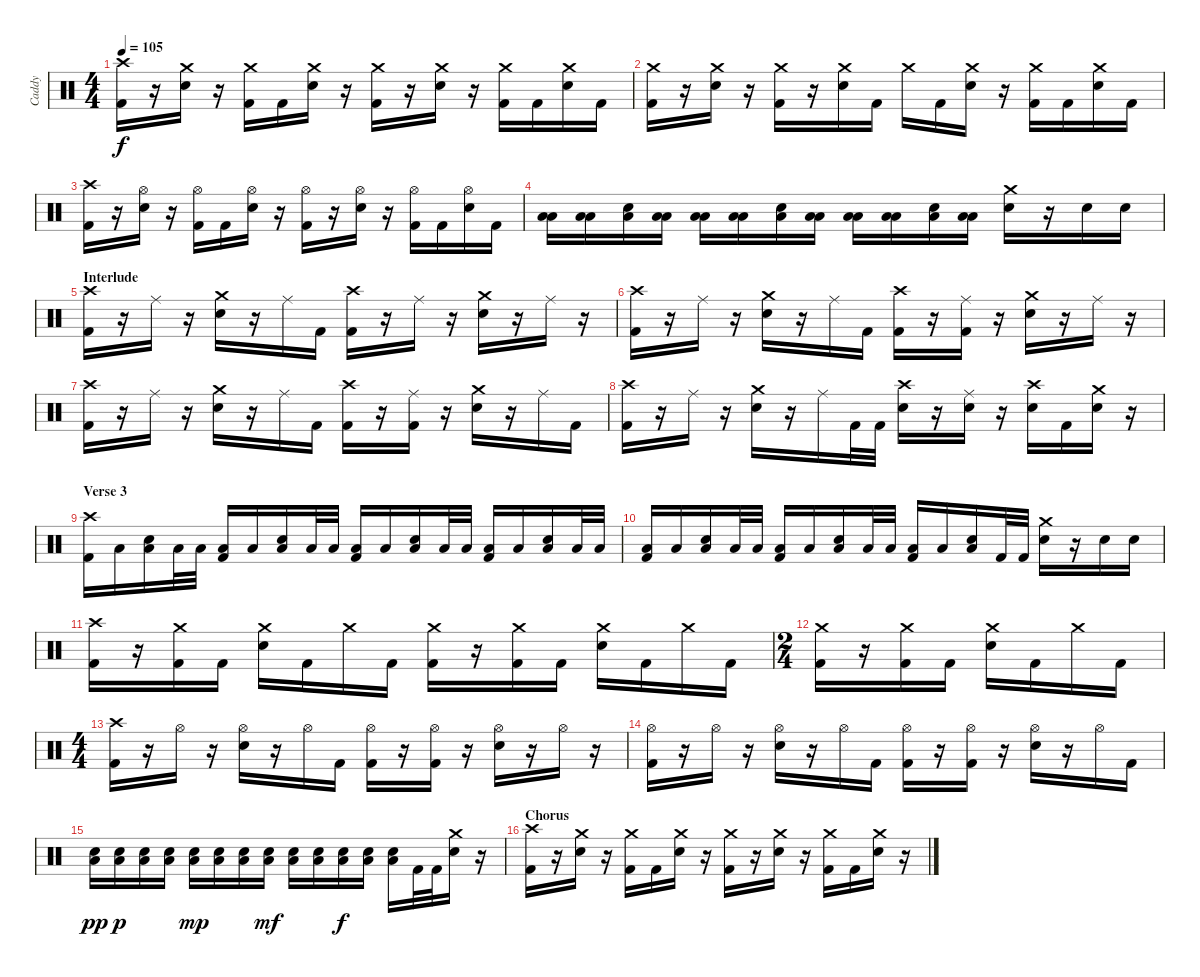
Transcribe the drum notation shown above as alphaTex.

\track ("Caddy" "Caddy") {instrument percussion}
\staff {score}
\articulation defaults
\ts (4 4)
\tempo 105
\clef neutral
\ks c
("Crash high (hit)" "Kick (hit) 2").16{dy f} r.16 ("Crash medium (hit)" "Electric Snare (hit)").16 r.16 ("Crash medium (hit)" "Kick (hit) 2").16 "Kick (hit) 2".16 ("Crash medium (hit)" "Electric Snare (hit)").16 r.16 ("Crash medium (hit)" "Kick (hit) 2").16 r.16 ("Crash medium (hit)" "Electric Snare (hit)").16 r.16 ("Crash medium (hit)" "Kick (hit) 2").16 "Kick (hit) 2".16 ("Crash medium (hit)" "Electric Snare (hit)").16 "Kick (hit) 2".16 |
("Crash medium (hit)" "Kick (hit) 2").16 r.16 ("Crash medium (hit)" "Electric Snare (hit)").16 r.16 ("Crash medium (hit)" "Kick (hit) 2").16 r.16 ("Crash medium (hit)" "Electric Snare (hit)").16 "Kick (hit) 2".16 "Crash medium (hit)".16 "Kick (hit) 2".16 ("Crash medium (hit)" "Electric Snare (hit)").16 r.16 ("Crash medium (hit)" "Kick (hit) 2").16 "Kick (hit) 2".16 ("Crash medium (hit)" "Electric Snare (hit)").16 "Kick (hit) 2".16 |
("Crash high (hit)" "Kick (hit) 2").16 r.16 ("Hi-Hat (open)" "Electric Snare (hit)").16 r.16 ("Hi-Hat (open)" "Kick (hit) 2").16 "Kick (hit) 2".16 ("Hi-Hat (open)" "Electric Snare (hit)").16 r.16 ("Hi-Hat (open)" "Kick (hit) 2").16 r.16 ("Hi-Hat (open)" "Electric Snare (hit)").16 r.16 ("Hi-Hat (open)" "Kick (hit) 2").16 "Kick (hit) 2".16 ("Hi-Hat (open)" "Electric Snare (hit)").16 "Kick (hit) 2".16 |
("Low Tom (hit)" "Low Floor Tom (hit)").16 ("Low Tom (hit)" "Low Floor Tom (hit)").16 ("Electric Snare (hit)" "Low Floor Tom (hit)").16 ("Low Tom (hit)" "Low Floor Tom (hit)").16 ("Low Tom (hit)" "Low Floor Tom (hit)").16 ("Low Tom (hit)" "Low Floor Tom (hit)").16 ("Electric Snare (hit)" "Low Floor Tom (hit)").16 ("Low Tom (hit)" "Low Floor Tom (hit)").16 ("Low Tom (hit)" "Low Floor Tom (hit)").16 ("Low Tom (hit)" "Low Floor Tom (hit)").16 ("Electric Snare (hit)" "Low Floor Tom (hit)").16 ("Low Tom (hit)" "Low Floor Tom (hit)").16 ("Crash medium (hit)" "Electric Snare (hit)").16 r.16 "Electric Snare (hit)".16 "Electric Snare (hit)".16 |
\section ("" "Interlude")
("Crash high (hit)" "Kick (hit) 2").16 r.16 "Ride (middle)".16 r.16 ("Crash medium (hit)" "Electric Snare (hit)").16 r.16 "Ride (middle)".16 "Kick (hit) 2".16 ("Crash high (hit)" "Kick (hit) 2").16 r.16 "Ride (middle)".16 r.16 ("Crash medium (hit)" "Electric Snare (hit)").16 r.16 "Ride (middle)".16 r.16 |
("Crash high (hit)" "Kick (hit) 2").16 r.16 "Ride (middle)".16 r.16 ("Crash medium (hit)" "Electric Snare (hit)").16 r.16 "Ride (middle)".16 "Kick (hit) 2".16 ("Crash high (hit)" "Kick (hit) 2").16 r.16 ("Ride (middle)" "Kick (hit) 2").16 r.16 ("Crash medium (hit)" "Electric Snare (hit)").16 r.16 "Ride (middle)".16 r.16 |
("Crash high (hit)" "Kick (hit) 2").16 r.16 "Ride (middle)".16 r.16 ("Crash medium (hit)" "Electric Snare (hit)").16 r.16 "Ride (middle)".16 "Kick (hit) 2".16 ("Crash high (hit)" "Kick (hit) 2").16 r.16 ("Ride (middle)" "Kick (hit) 2").16 r.16 ("Crash medium (hit)" "Electric Snare (hit)").16 r.16 "Ride (middle)".16 "Kick (hit) 2".16 |
("Crash high (hit)" "Kick (hit) 2").16 r.16 "Ride (middle)".16 r.16 ("Crash medium (hit)" "Electric Snare (hit)").16 r.16 "Ride (middle)".16 "Kick (hit) 2".32 "Kick (hit) 2".32 ("Crash high (hit)" "Electric Snare (hit)").16 r.16 ("Ride (middle)" "Electric Snare (hit)").16 r.16 ("Crash high (hit)" "Electric Snare (hit)").16 "Kick (hit) 2".16 ("Crash medium (hit)" "Electric Snare (hit)").16 r.16 |
\section ("" "Verse 3")
("Crash high (hit)" "Kick (hit) 2").16 "Low Floor Tom (hit)".16 ("Electric Snare (hit)" "Low Floor Tom (hit)").16 "Low Floor Tom (hit)".32 "Low Floor Tom (hit)".32 ("Low Floor Tom (hit)" "Kick (hit) 2").16 "Low Floor Tom (hit)".16 ("Electric Snare (hit)" "Low Floor Tom (hit)").16 "Low Floor Tom (hit)".32 "Low Floor Tom (hit)".32 ("Low Floor Tom (hit)" "Kick (hit) 2").16 "Low Floor Tom (hit)".16 ("Electric Snare (hit)" "Low Floor Tom (hit)").16 "Low Floor Tom (hit)".32 "Low Floor Tom (hit)".32 ("Low Floor Tom (hit)" "Kick (hit) 2").16 "Low Floor Tom (hit)".16 ("Electric Snare (hit)" "Low Floor Tom (hit)").16 "Low Floor Tom (hit)".32 "Low Floor Tom (hit)".32 |
("Low Floor Tom (hit)" "Kick (hit) 2").16 "Low Floor Tom (hit)".16 ("Electric Snare (hit)" "Low Floor Tom (hit)").16 "Low Floor Tom (hit)".32 "Low Floor Tom (hit)".32 ("Low Floor Tom (hit)" "Kick (hit) 2").16 "Low Floor Tom (hit)".16 ("Electric Snare (hit)" "Low Floor Tom (hit)").16 "Low Floor Tom (hit)".32 "Low Floor Tom (hit)".32 ("Low Floor Tom (hit)" "Kick (hit) 2").16 "Low Floor Tom (hit)".16 ("Electric Snare (hit)" "Low Floor Tom (hit)").16 "Kick (hit) 2".32 "Kick (hit) 2".32 ("Crash medium (hit)" "Electric Snare (hit)").16 r.16 "Electric Snare (hit)".16 "Electric Snare (hit)".16 |
("Crash high (hit)" "Kick (hit) 2").16 r.16 ("Crash medium (hit)" "Kick (hit) 2").16 "Kick (hit) 2".16 ("Crash medium (hit)" "Electric Snare (hit)").16 "Kick (hit) 2".16 "Crash medium (hit)".16 "Kick (hit) 2".16 ("Crash medium (hit)" "Kick (hit) 2").16 r.16 ("Crash medium (hit)" "Kick (hit) 2").16 "Kick (hit) 2".16 ("Crash medium (hit)" "Electric Snare (hit)").16 "Kick (hit) 2".16 "Crash medium (hit)".16 "Kick (hit) 2".16 |
\ts (2 4)
("Crash medium (hit)" "Kick (hit) 2").16 r.16 ("Crash medium (hit)" "Kick (hit) 2").16 "Kick (hit) 2".16 ("Crash medium (hit)" "Electric Snare (hit)").16 "Kick (hit) 2".16 "Crash medium (hit)".16 "Kick (hit) 2".16 |
\ts (4 4)
("Crash high (hit)" "Kick (hit) 2").16 r.16 "Hi-Hat (open)".16 r.16 ("Hi-Hat (open)" "Electric Snare (hit)").16 r.16 "Hi-Hat (open)".16 "Kick (hit) 2".16 ("Hi-Hat (open)" "Kick (hit) 2").16 r.16 ("Hi-Hat (open)" "Kick (hit) 2").16 r.16 ("Hi-Hat (open)" "Electric Snare (hit)").16 r.16 "Hi-Hat (open)".16 r.16 |
("Hi-Hat (open)" "Kick (hit) 2").16 r.16 "Hi-Hat (open)".16 r.16 ("Hi-Hat (open)" "Electric Snare (hit)").16 r.16 "Hi-Hat (open)".16 "Kick (hit) 2".16 ("Hi-Hat (open)" "Kick (hit) 2").16 r.16 ("Hi-Hat (open)" "Kick (hit) 2").16 r.16 ("Hi-Hat (open)" "Electric Snare (hit)").16 r.16 "Hi-Hat (open)".16 "Kick (hit) 2".16 |
("Electric Snare (hit)" "Low Floor Tom (hit)").16{dy pp} ("Electric Snare (hit)" "Low Floor Tom (hit)").16{dy p} ("Electric Snare (hit)" "Low Floor Tom (hit)").16 ("Electric Snare (hit)" "Low Floor Tom (hit)").16 ("Electric Snare (hit)" "Low Floor Tom (hit)").16{dy mp} ("Electric Snare (hit)" "Low Floor Tom (hit)").16 ("Electric Snare (hit)" "Low Floor Tom (hit)").16 ("Electric Snare (hit)" "Low Floor Tom (hit)").16{dy mf} ("Electric Snare (hit)" "Low Floor Tom (hit)").16 ("Electric Snare (hit)" "Low Floor Tom (hit)").16 ("Electric Snare (hit)" "Low Floor Tom (hit)").16{dy f} ("Electric Snare (hit)" "Low Floor Tom (hit)").16 ("Electric Snare (hit)" "Low Floor Tom (hit)").16 "Kick (hit) 2".32 "Kick (hit) 2".32 ("Crash medium (hit)" "Electric Snare (hit)").16 r.16 |
\section ("" "Chorus")
("Crash high (hit)" "Kick (hit) 2").16 r.16 ("Crash medium (hit)" "Electric Snare (hit)").16 r.16 ("Crash medium (hit)" "Kick (hit) 2").16 "Kick (hit) 2".16 ("Crash medium (hit)" "Electric Snare (hit)").16 r.16 ("Crash medium (hit)" "Kick (hit) 2").16 r.16 ("Crash medium (hit)" "Electric Snare (hit)").16 r.16 ("Crash medium (hit)" "Kick (hit) 2").16 "Kick (hit) 2".16 ("Crash medium (hit)" "Electric Snare (hit)").16 r.16
